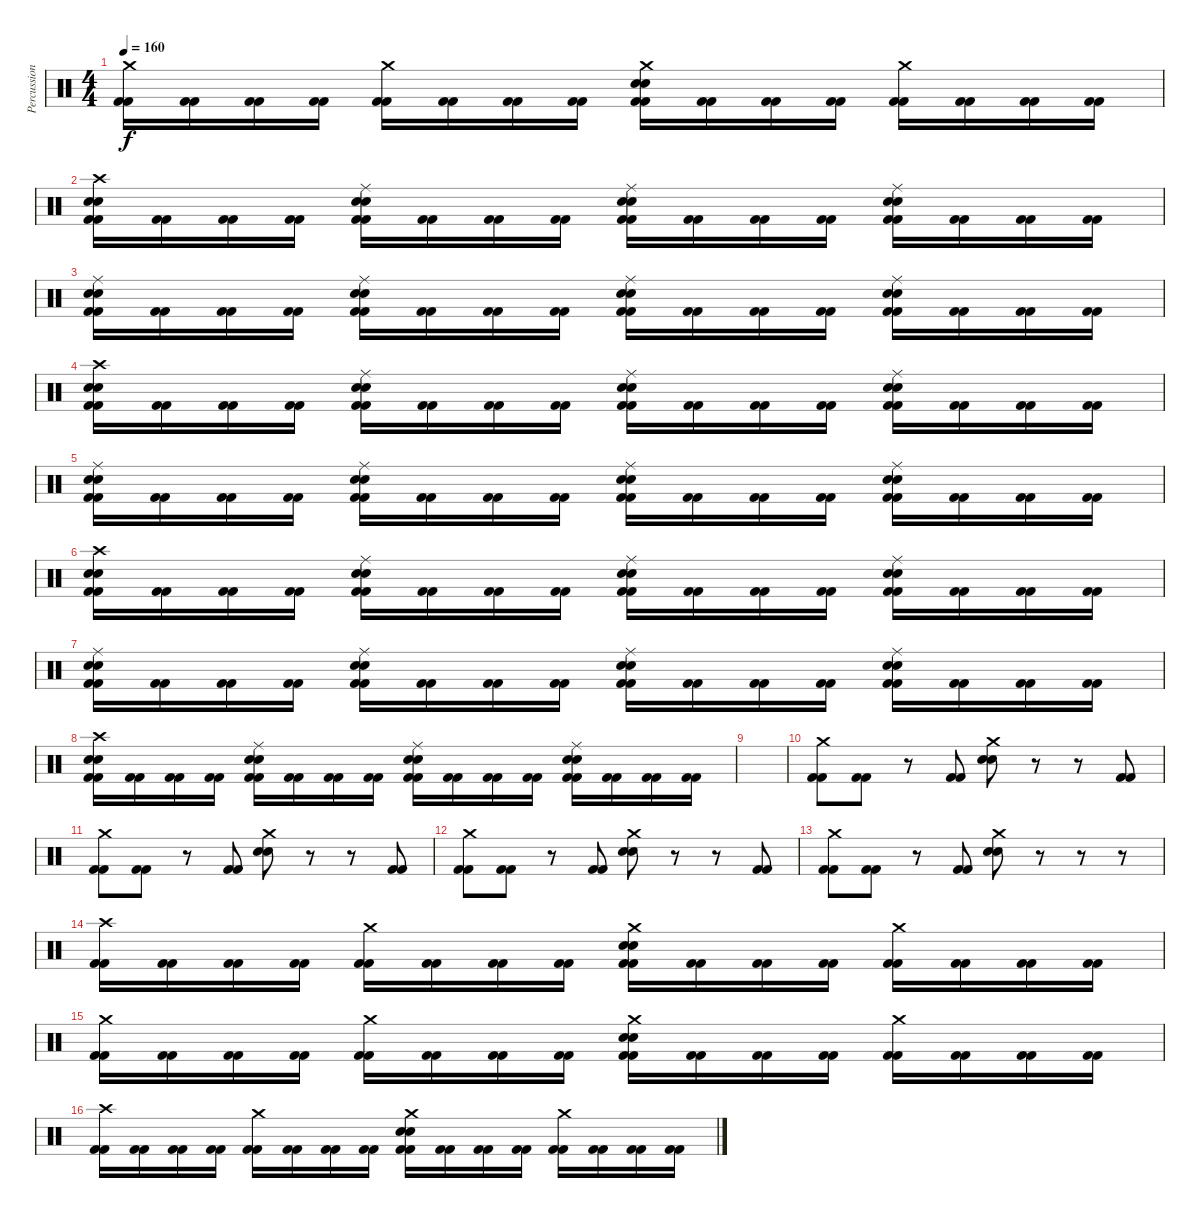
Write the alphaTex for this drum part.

\track ("Percussion" "Percussion") {instrument percussion}
\staff {score}
\articulation defaults
\ts (4 4)
\tempo 160
\clef neutral
\ks c
("Crash medium (hit)" "Kick (hit) 2" "Kick (hit) 2").16{dy f} ("Kick (hit) 2" "Kick (hit) 2").16 ("Kick (hit) 2" "Kick (hit) 2").16 ("Kick (hit) 2" "Kick (hit) 2").16 ("Crash medium (hit)" "Kick (hit) 2" "Kick (hit) 2").16 ("Kick (hit) 2" "Kick (hit) 2").16 ("Kick (hit) 2" "Kick (hit) 2").16 ("Kick (hit) 2" "Kick (hit) 2").16 ("Crash medium (hit)" "Snare (hit) 2" "Snare (hit) 2" "Kick (hit) 2" "Kick (hit) 2").16 ("Kick (hit) 2" "Kick (hit) 2").16 ("Kick (hit) 2" "Kick (hit) 2").16 ("Kick (hit) 2" "Kick (hit) 2").16 ("Crash medium (hit)" "Kick (hit) 2" "Kick (hit) 2").16 ("Kick (hit) 2" "Kick (hit) 2").16 ("Kick (hit) 2" "Kick (hit) 2").16 ("Kick (hit) 2" "Kick (hit) 2").16 |
("Crash high (hit)" "Snare (hit) 2" "Snare (hit) 2" "Kick (hit) 2" "Kick (hit) 2").16 ("Kick (hit) 2" "Kick (hit) 2").16 ("Kick (hit) 2" "Kick (hit) 2").16 ("Kick (hit) 2" "Kick (hit) 2").16 ("Ride (middle)" "Snare (hit) 2" "Snare (hit) 2" "Kick (hit) 2" "Kick (hit) 2").16 ("Kick (hit) 2" "Kick (hit) 2").16 ("Kick (hit) 2" "Kick (hit) 2").16 ("Kick (hit) 2" "Kick (hit) 2").16 ("Ride (middle)" "Snare (hit) 2" "Snare (hit) 2" "Kick (hit) 2" "Kick (hit) 2").16 ("Kick (hit) 2" "Kick (hit) 2").16 ("Kick (hit) 2" "Kick (hit) 2").16 ("Kick (hit) 2" "Kick (hit) 2").16 ("Ride (middle)" "Snare (hit) 2" "Snare (hit) 2" "Kick (hit) 2" "Kick (hit) 2").16 ("Kick (hit) 2" "Kick (hit) 2").16 ("Kick (hit) 2" "Kick (hit) 2").16 ("Kick (hit) 2" "Kick (hit) 2").16 |
("Ride (middle)" "Snare (hit) 2" "Snare (hit) 2" "Kick (hit) 2" "Kick (hit) 2").16 ("Kick (hit) 2" "Kick (hit) 2").16 ("Kick (hit) 2" "Kick (hit) 2").16 ("Kick (hit) 2" "Kick (hit) 2").16 ("Ride (middle)" "Snare (hit) 2" "Snare (hit) 2" "Kick (hit) 2" "Kick (hit) 2").16 ("Kick (hit) 2" "Kick (hit) 2").16 ("Kick (hit) 2" "Kick (hit) 2").16 ("Kick (hit) 2" "Kick (hit) 2").16 ("Ride (middle)" "Snare (hit) 2" "Snare (hit) 2" "Kick (hit) 2" "Kick (hit) 2").16 ("Kick (hit) 2" "Kick (hit) 2").16 ("Kick (hit) 2" "Kick (hit) 2").16 ("Kick (hit) 2" "Kick (hit) 2").16 ("Ride (middle)" "Snare (hit) 2" "Snare (hit) 2" "Kick (hit) 2" "Kick (hit) 2").16 ("Kick (hit) 2" "Kick (hit) 2").16 ("Kick (hit) 2" "Kick (hit) 2").16 ("Kick (hit) 2" "Kick (hit) 2").16 |
("Crash high (hit)" "Snare (hit) 2" "Snare (hit) 2" "Kick (hit) 2" "Kick (hit) 2").16 ("Kick (hit) 2" "Kick (hit) 2").16 ("Kick (hit) 2" "Kick (hit) 2").16 ("Kick (hit) 2" "Kick (hit) 2").16 ("Ride (middle)" "Snare (hit) 2" "Snare (hit) 2" "Kick (hit) 2" "Kick (hit) 2").16 ("Kick (hit) 2" "Kick (hit) 2").16 ("Kick (hit) 2" "Kick (hit) 2").16 ("Kick (hit) 2" "Kick (hit) 2").16 ("Ride (middle)" "Snare (hit) 2" "Snare (hit) 2" "Kick (hit) 2" "Kick (hit) 2").16 ("Kick (hit) 2" "Kick (hit) 2").16 ("Kick (hit) 2" "Kick (hit) 2").16 ("Kick (hit) 2" "Kick (hit) 2").16 ("Ride (middle)" "Snare (hit) 2" "Snare (hit) 2" "Kick (hit) 2" "Kick (hit) 2").16 ("Kick (hit) 2" "Kick (hit) 2").16 ("Kick (hit) 2" "Kick (hit) 2").16 ("Kick (hit) 2" "Kick (hit) 2").16 |
("Ride (middle)" "Snare (hit) 2" "Snare (hit) 2" "Kick (hit) 2" "Kick (hit) 2").16 ("Kick (hit) 2" "Kick (hit) 2").16 ("Kick (hit) 2" "Kick (hit) 2").16 ("Kick (hit) 2" "Kick (hit) 2").16 ("Ride (middle)" "Snare (hit) 2" "Snare (hit) 2" "Kick (hit) 2" "Kick (hit) 2").16 ("Kick (hit) 2" "Kick (hit) 2").16 ("Kick (hit) 2" "Kick (hit) 2").16 ("Kick (hit) 2" "Kick (hit) 2").16 ("Ride (middle)" "Snare (hit) 2" "Snare (hit) 2" "Kick (hit) 2" "Kick (hit) 2").16 ("Kick (hit) 2" "Kick (hit) 2").16 ("Kick (hit) 2" "Kick (hit) 2").16 ("Kick (hit) 2" "Kick (hit) 2").16 ("Ride (middle)" "Snare (hit) 2" "Snare (hit) 2" "Kick (hit) 2" "Kick (hit) 2").16 ("Kick (hit) 2" "Kick (hit) 2").16 ("Kick (hit) 2" "Kick (hit) 2").16 ("Kick (hit) 2" "Kick (hit) 2").16 |
("Crash high (hit)" "Snare (hit) 2" "Snare (hit) 2" "Kick (hit) 2" "Kick (hit) 2").16 ("Kick (hit) 2" "Kick (hit) 2").16 ("Kick (hit) 2" "Kick (hit) 2").16 ("Kick (hit) 2" "Kick (hit) 2").16 ("Ride (middle)" "Snare (hit) 2" "Snare (hit) 2" "Kick (hit) 2" "Kick (hit) 2").16 ("Kick (hit) 2" "Kick (hit) 2").16 ("Kick (hit) 2" "Kick (hit) 2").16 ("Kick (hit) 2" "Kick (hit) 2").16 ("Ride (middle)" "Snare (hit) 2" "Snare (hit) 2" "Kick (hit) 2" "Kick (hit) 2").16 ("Kick (hit) 2" "Kick (hit) 2").16 ("Kick (hit) 2" "Kick (hit) 2").16 ("Kick (hit) 2" "Kick (hit) 2").16 ("Ride (middle)" "Snare (hit) 2" "Snare (hit) 2" "Kick (hit) 2" "Kick (hit) 2").16 ("Kick (hit) 2" "Kick (hit) 2").16 ("Kick (hit) 2" "Kick (hit) 2").16 ("Kick (hit) 2" "Kick (hit) 2").16 |
("Ride (middle)" "Snare (hit) 2" "Snare (hit) 2" "Kick (hit) 2" "Kick (hit) 2").16 ("Kick (hit) 2" "Kick (hit) 2").16 ("Kick (hit) 2" "Kick (hit) 2").16 ("Kick (hit) 2" "Kick (hit) 2").16 ("Ride (middle)" "Snare (hit) 2" "Snare (hit) 2" "Kick (hit) 2" "Kick (hit) 2").16 ("Kick (hit) 2" "Kick (hit) 2").16 ("Kick (hit) 2" "Kick (hit) 2").16 ("Kick (hit) 2" "Kick (hit) 2").16 ("Ride (middle)" "Snare (hit) 2" "Snare (hit) 2" "Kick (hit) 2" "Kick (hit) 2").16 ("Kick (hit) 2" "Kick (hit) 2").16 ("Kick (hit) 2" "Kick (hit) 2").16 ("Kick (hit) 2" "Kick (hit) 2").16 ("Ride (middle)" "Snare (hit) 2" "Snare (hit) 2" "Kick (hit) 2" "Kick (hit) 2").16 ("Kick (hit) 2" "Kick (hit) 2").16 ("Kick (hit) 2" "Kick (hit) 2").16 ("Kick (hit) 2" "Kick (hit) 2").16 |
("Crash high (hit)" "Snare (hit) 2" "Snare (hit) 2" "Kick (hit) 2" "Kick (hit) 2").16 ("Kick (hit) 2" "Kick (hit) 2").16 ("Kick (hit) 2" "Kick (hit) 2").16 ("Kick (hit) 2" "Kick (hit) 2").16 ("Ride (middle)" "Snare (hit) 2" "Snare (hit) 2" "Kick (hit) 2" "Kick (hit) 2").16 ("Kick (hit) 2" "Kick (hit) 2").16 ("Kick (hit) 2" "Kick (hit) 2").16 ("Kick (hit) 2" "Kick (hit) 2").16 ("Ride (middle)" "Snare (hit) 2" "Snare (hit) 2" "Kick (hit) 2" "Kick (hit) 2").16 ("Kick (hit) 2" "Kick (hit) 2").16 ("Kick (hit) 2" "Kick (hit) 2").16 ("Kick (hit) 2" "Kick (hit) 2").16 ("Ride (middle)" "Snare (hit) 2" "Snare (hit) 2" "Kick (hit) 2" "Kick (hit) 2").16 ("Kick (hit) 2" "Kick (hit) 2").16 ("Kick (hit) 2" "Kick (hit) 2").16 ("Kick (hit) 2" "Kick (hit) 2").16 |
|
("Crash medium (hit)" "Kick (hit) 2" "Kick (hit) 2").8 ("Kick (hit) 2" "Kick (hit) 2").8 r.8 ("Kick (hit) 2" "Kick (hit) 2").8 ("Crash medium (hit)" "Snare (hit) 2" "Snare (hit) 2").8 r.8 r.8 ("Kick (hit) 2" "Kick (hit) 2").8 |
("Crash medium (hit)" "Kick (hit) 2" "Kick (hit) 2").8 ("Kick (hit) 2" "Kick (hit) 2").8 r.8 ("Kick (hit) 2" "Kick (hit) 2").8 ("Crash medium (hit)" "Snare (hit) 2" "Snare (hit) 2").8 r.8 r.8 ("Kick (hit) 2" "Kick (hit) 2").8 |
("Crash medium (hit)" "Kick (hit) 2" "Kick (hit) 2").8 ("Kick (hit) 2" "Kick (hit) 2").8 r.8 ("Kick (hit) 2" "Kick (hit) 2").8 ("Crash medium (hit)" "Snare (hit) 2" "Snare (hit) 2").8 r.8 r.8 ("Kick (hit) 2" "Kick (hit) 2").8 |
("Crash medium (hit)" "Kick (hit) 2" "Kick (hit) 2").8 ("Kick (hit) 2" "Kick (hit) 2").8 r.8 ("Kick (hit) 2" "Kick (hit) 2").8 ("Crash medium (hit)" "Snare (hit) 2" "Snare (hit) 2").8 r.8 r.8 r.8 |
("Crash high (hit)" "Kick (hit) 2" "Kick (hit) 2").16 ("Kick (hit) 2" "Kick (hit) 2").16 ("Kick (hit) 2" "Kick (hit) 2").16 ("Kick (hit) 2" "Kick (hit) 2").16 ("Crash medium (hit)" "Kick (hit) 2" "Kick (hit) 2").16 ("Kick (hit) 2" "Kick (hit) 2").16 ("Kick (hit) 2" "Kick (hit) 2").16 ("Kick (hit) 2" "Kick (hit) 2").16 ("Crash medium (hit)" "Snare (hit) 2" "Snare (hit) 2" "Kick (hit) 2" "Kick (hit) 2").16 ("Kick (hit) 2" "Kick (hit) 2").16 ("Kick (hit) 2" "Kick (hit) 2").16 ("Kick (hit) 2" "Kick (hit) 2").16 ("Crash medium (hit)" "Kick (hit) 2" "Kick (hit) 2").16 ("Kick (hit) 2" "Kick (hit) 2").16 ("Kick (hit) 2" "Kick (hit) 2").16 ("Kick (hit) 2" "Kick (hit) 2").16 |
("Crash medium (hit)" "Kick (hit) 2" "Kick (hit) 2").16 ("Kick (hit) 2" "Kick (hit) 2").16 ("Kick (hit) 2" "Kick (hit) 2").16 ("Kick (hit) 2" "Kick (hit) 2").16 ("Crash medium (hit)" "Kick (hit) 2" "Kick (hit) 2").16 ("Kick (hit) 2" "Kick (hit) 2").16 ("Kick (hit) 2" "Kick (hit) 2").16 ("Kick (hit) 2" "Kick (hit) 2").16 ("Crash medium (hit)" "Snare (hit) 2" "Snare (hit) 2" "Kick (hit) 2" "Kick (hit) 2").16 ("Kick (hit) 2" "Kick (hit) 2").16 ("Kick (hit) 2" "Kick (hit) 2").16 ("Kick (hit) 2" "Kick (hit) 2").16 ("Crash medium (hit)" "Kick (hit) 2" "Kick (hit) 2").16 ("Kick (hit) 2" "Kick (hit) 2").16 ("Kick (hit) 2" "Kick (hit) 2").16 ("Kick (hit) 2" "Kick (hit) 2").16 |
("Crash high (hit)" "Kick (hit) 2" "Kick (hit) 2").16 ("Kick (hit) 2" "Kick (hit) 2").16 ("Kick (hit) 2" "Kick (hit) 2").16 ("Kick (hit) 2" "Kick (hit) 2").16 ("Crash medium (hit)" "Kick (hit) 2" "Kick (hit) 2").16 ("Kick (hit) 2" "Kick (hit) 2").16 ("Kick (hit) 2" "Kick (hit) 2").16 ("Kick (hit) 2" "Kick (hit) 2").16 ("Crash medium (hit)" "Snare (hit) 2" "Snare (hit) 2" "Kick (hit) 2" "Kick (hit) 2").16 ("Kick (hit) 2" "Kick (hit) 2").16 ("Kick (hit) 2" "Kick (hit) 2").16 ("Kick (hit) 2" "Kick (hit) 2").16 ("Crash medium (hit)" "Kick (hit) 2" "Kick (hit) 2").16 ("Kick (hit) 2" "Kick (hit) 2").16 ("Kick (hit) 2" "Kick (hit) 2").16 ("Kick (hit) 2" "Kick (hit) 2").16
